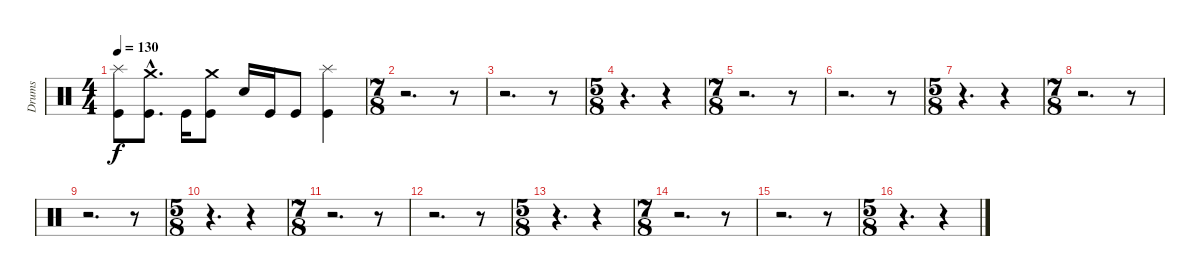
\track ("Drums" "Drums") {instrument percussion}
\staff {score}
\articulation defaults
\ts (4 4)
\tempo 130
\clef neutral
\ks c
("Splash (hit)" "Kick (hit)").8{dy f} ("Crash medium (hit)"{hac} "Kick (hit)"{hac}).8{d} "Kick (hit)".16 ("Crash medium (hit)" "Kick (hit)").8 "Electric Snare (hit)".16 "Kick (hit)".16 "Kick (hit)".8 ("Splash (hit)" "Kick (hit)").4 |
\ts (7 8)
r.2{d} r.8 |
r.2{d} r.8 |
\ts (5 8)
r.4{d} r.4 |
\ts (7 8)
r.2{d} r.8 |
r.2{d} r.8 |
\ts (5 8)
r.4{d} r.4 |
\ts (7 8)
r.2{d} r.8 |
r.2{d} r.8 |
\ts (5 8)
r.4{d} r.4 |
\ts (7 8)
r.2{d} r.8 |
r.2{d} r.8 |
\ts (5 8)
r.4{d} r.4 |
\ts (7 8)
r.2{d} r.8 |
r.2{d} r.8 |
\ts (5 8)
r.4{d} r.4
